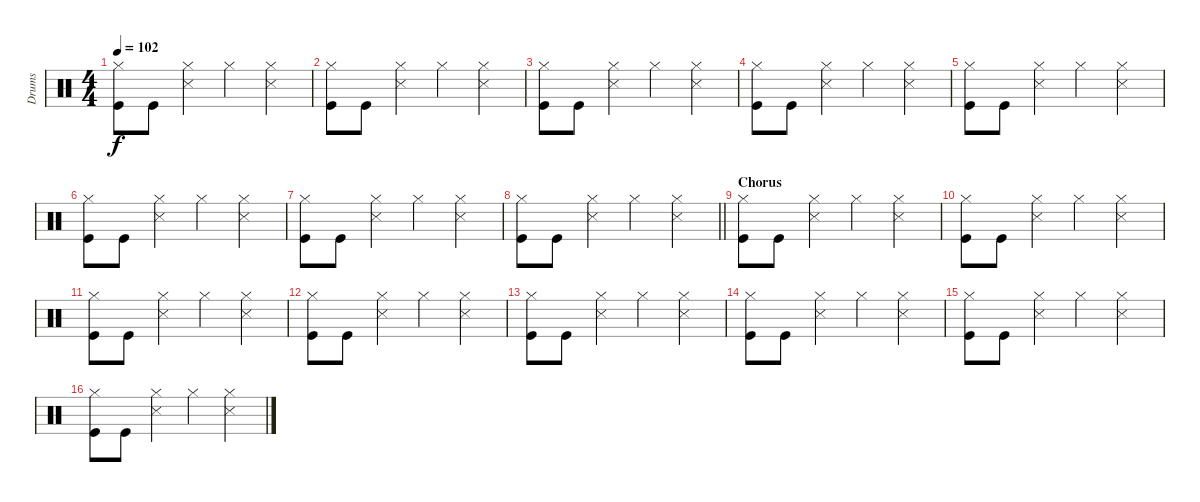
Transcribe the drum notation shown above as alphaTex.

\track ("Drums" "Drums") {instrument percussion}
\staff {score}
\articulation defaults
\ts (4 4)
\tempo 102
\clef neutral
\ks c
("Hi-Hat (closed)" "Kick (hit)").8{dy f} "Kick (hit)".8 ("Hi-Hat (closed)" "Snare (side stick) 3").4 "Hi-Hat (closed)".4 ("Hi-Hat (closed)" "Snare (side stick) 3").4 |
("Hi-Hat (closed)" "Kick (hit)").8 "Kick (hit)".8 ("Hi-Hat (closed)" "Snare (side stick) 3").4 "Hi-Hat (closed)".4 ("Hi-Hat (closed)" "Snare (side stick) 3").4 |
("Hi-Hat (closed)" "Kick (hit)").8 "Kick (hit)".8 ("Hi-Hat (closed)" "Snare (side stick) 3").4 "Hi-Hat (closed)".4 ("Hi-Hat (closed)" "Snare (side stick) 3").4 |
("Hi-Hat (closed)" "Kick (hit)").8 "Kick (hit)".8 ("Hi-Hat (closed)" "Snare (side stick) 3").4 "Hi-Hat (closed)".4 ("Hi-Hat (closed)" "Snare (side stick) 3").4 |
("Hi-Hat (closed)" "Kick (hit)").8 "Kick (hit)".8 ("Hi-Hat (closed)" "Snare (side stick) 3").4 "Hi-Hat (closed)".4 ("Hi-Hat (closed)" "Snare (side stick) 3").4 |
("Hi-Hat (closed)" "Kick (hit)").8 "Kick (hit)".8 ("Hi-Hat (closed)" "Snare (side stick) 3").4 "Hi-Hat (closed)".4 ("Hi-Hat (closed)" "Snare (side stick) 3").4 |
("Hi-Hat (closed)" "Kick (hit)").8 "Kick (hit)".8 ("Hi-Hat (closed)" "Snare (side stick) 3").4 "Hi-Hat (closed)".4 ("Hi-Hat (closed)" "Snare (side stick) 3").4 |
\barLineRight lightlight
("Hi-Hat (closed)" "Kick (hit)").8 "Kick (hit)".8 ("Hi-Hat (closed)" "Snare (side stick) 3").4 "Hi-Hat (closed)".4 ("Hi-Hat (closed)" "Snare (side stick) 3").4 |
\section ("" "Chorus")
("Hi-Hat (closed)" "Kick (hit)").8 "Kick (hit)".8 ("Hi-Hat (closed)" "Snare (side stick) 3").4 "Hi-Hat (closed)".4 ("Hi-Hat (closed)" "Snare (side stick) 3").4 |
("Hi-Hat (closed)" "Kick (hit)").8 "Kick (hit)".8 ("Hi-Hat (closed)" "Snare (side stick) 3").4 "Hi-Hat (closed)".4 ("Hi-Hat (closed)" "Snare (side stick) 3").4 |
("Hi-Hat (closed)" "Kick (hit)").8 "Kick (hit)".8 ("Hi-Hat (closed)" "Snare (side stick) 3").4 "Hi-Hat (closed)".4 ("Hi-Hat (closed)" "Snare (side stick) 3").4 |
("Hi-Hat (closed)" "Kick (hit)").8 "Kick (hit)".8 ("Hi-Hat (closed)" "Snare (side stick) 3").4 "Hi-Hat (closed)".4 ("Hi-Hat (closed)" "Snare (side stick) 3").4 |
("Hi-Hat (closed)" "Kick (hit)").8 "Kick (hit)".8 ("Hi-Hat (closed)" "Snare (side stick) 3").4 "Hi-Hat (closed)".4 ("Hi-Hat (closed)" "Snare (side stick) 3").4 |
("Hi-Hat (closed)" "Kick (hit)").8 "Kick (hit)".8 ("Hi-Hat (closed)" "Snare (side stick) 3").4 "Hi-Hat (closed)".4 ("Hi-Hat (closed)" "Snare (side stick) 3").4 |
("Hi-Hat (closed)" "Kick (hit)").8 "Kick (hit)".8 ("Hi-Hat (closed)" "Snare (side stick) 3").4 "Hi-Hat (closed)".4 ("Hi-Hat (closed)" "Snare (side stick) 3").4 |
("Hi-Hat (closed)" "Kick (hit)").8 "Kick (hit)".8 ("Hi-Hat (closed)" "Snare (side stick) 3").4 "Hi-Hat (closed)".4 ("Hi-Hat (closed)" "Snare (side stick) 3").4
